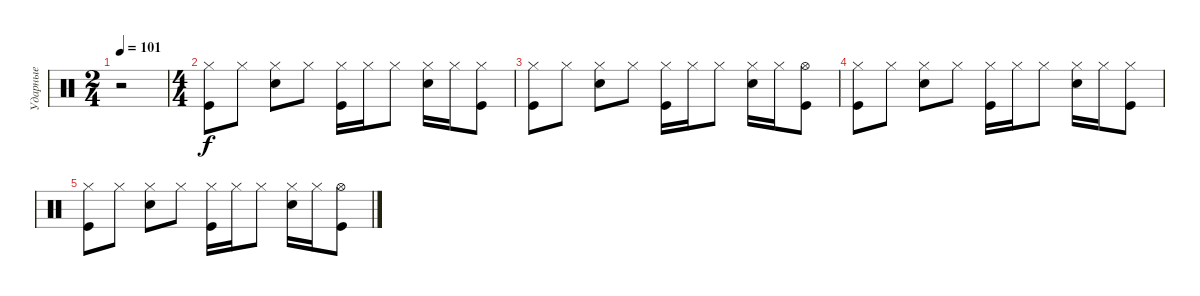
\track ("Ударные" "Ударные") {instrument percussion}
\staff {score}
\articulation defaults
\ts (2 4)
\tempo 101
\clef neutral
\ks c
r.2{dy f} |
\ts (4 4)
("Hi-Hat (closed)" "Kick (hit)").8 "Hi-Hat (closed)".8 ("Hi-Hat (closed)" "Snare (hit) 2").8 "Hi-Hat (closed)".8 ("Hi-Hat (closed)" "Kick (hit)").16 "Hi-Hat (closed)".16 "Hi-Hat (closed)".8 ("Snare (hit) 2" "Hi-Hat (closed)").16 "Hi-Hat (closed)".16 ("Hi-Hat (closed)" "Kick (hit)").8 |
("Hi-Hat (closed)" "Kick (hit)").8 "Hi-Hat (closed)".8 ("Hi-Hat (closed)" "Snare (hit) 2").8 "Hi-Hat (closed)".8 ("Hi-Hat (closed)" "Kick (hit)").16 "Hi-Hat (closed)".16 "Hi-Hat (closed)".8 ("Snare (hit) 2" "Hi-Hat (closed)").16 "Hi-Hat (closed)".16 ("Hi-Hat (open)" "Kick (hit)").8 |
("Hi-Hat (closed)" "Kick (hit)").8 "Hi-Hat (closed)".8 ("Hi-Hat (closed)" "Snare (hit) 2").8 "Hi-Hat (closed)".8 ("Hi-Hat (closed)" "Kick (hit)").16 "Hi-Hat (closed)".16 "Hi-Hat (closed)".8 ("Snare (hit) 2" "Hi-Hat (closed)").16 "Hi-Hat (closed)".16 ("Hi-Hat (closed)" "Kick (hit)").8 |
("Hi-Hat (closed)" "Kick (hit)").8 "Hi-Hat (closed)".8 ("Hi-Hat (closed)" "Snare (hit) 2").8 "Hi-Hat (closed)".8 ("Hi-Hat (closed)" "Kick (hit)").16 "Hi-Hat (closed)".16 "Hi-Hat (closed)".8 ("Snare (hit) 2" "Hi-Hat (closed)").16 "Hi-Hat (closed)".16 ("Hi-Hat (open)" "Kick (hit)").8
